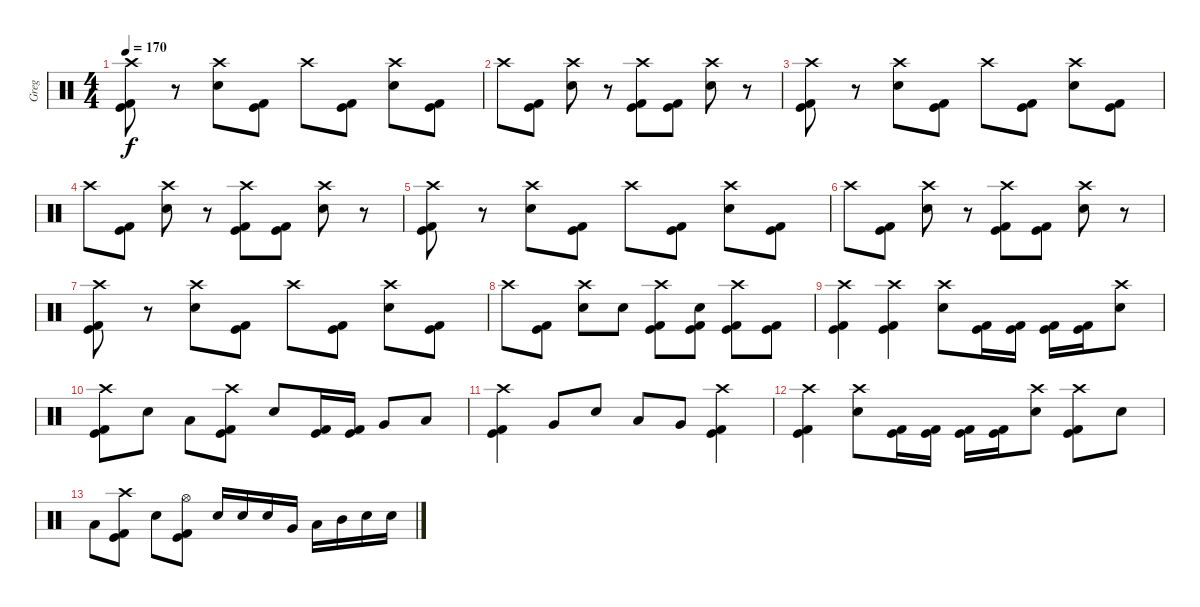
\track ("Greg" "Greg") {instrument percussion}
\staff {score}
\articulation defaults
\ts (4 4)
\tempo 170
\clef neutral
\ks c
("Crash high (hit)" "Kick (hit)" "Kick (hit) 2").8{dy f} r.8 ("Crash high (hit)" "Snare (hit) 2").8 ("Kick (hit)" "Kick (hit) 2").8 "Crash high (hit)".8 ("Kick (hit)" "Kick (hit) 2").8 ("Crash high (hit)" "Snare (hit) 2").8 ("Kick (hit)" "Kick (hit) 2").8 |
"Crash high (hit)".8 ("Kick (hit)" "Kick (hit) 2").8 ("Crash high (hit)" "Snare (hit) 2").8 r.8 ("Crash high (hit)" "Kick (hit)" "Kick (hit) 2").8 ("Kick (hit)" "Kick (hit) 2").8 ("Crash high (hit)" "Snare (hit) 2").8 r.8 |
("Crash high (hit)" "Kick (hit)" "Kick (hit) 2").8 r.8 ("Crash high (hit)" "Snare (hit) 2").8 ("Kick (hit)" "Kick (hit) 2").8 "Crash high (hit)".8 ("Kick (hit)" "Kick (hit) 2").8 ("Crash high (hit)" "Snare (hit) 2").8 ("Kick (hit)" "Kick (hit) 2").8 |
"Crash high (hit)".8 ("Kick (hit)" "Kick (hit) 2").8 ("Crash high (hit)" "Snare (hit) 2").8 r.8 ("Crash high (hit)" "Kick (hit)" "Kick (hit) 2").8 ("Kick (hit)" "Kick (hit) 2").8 ("Crash high (hit)" "Snare (hit) 2").8 r.8 |
("Crash high (hit)" "Kick (hit)" "Kick (hit) 2").8 r.8 ("Crash high (hit)" "Snare (hit) 2").8 ("Kick (hit)" "Kick (hit) 2").8 "Crash high (hit)".8 ("Kick (hit)" "Kick (hit) 2").8 ("Crash high (hit)" "Snare (hit) 2").8 ("Kick (hit)" "Kick (hit) 2").8 |
"Crash high (hit)".8 ("Kick (hit)" "Kick (hit) 2").8 ("Crash high (hit)" "Snare (hit) 2").8 r.8 ("Crash high (hit)" "Kick (hit)" "Kick (hit) 2").8 ("Kick (hit)" "Kick (hit) 2").8 ("Crash high (hit)" "Snare (hit) 2").8 r.8 |
("Crash high (hit)" "Kick (hit)" "Kick (hit) 2").8 r.8 ("Crash high (hit)" "Snare (hit) 2").8 ("Kick (hit)" "Kick (hit) 2").8 "Crash high (hit)".8 ("Kick (hit)" "Kick (hit) 2").8 ("Crash high (hit)" "Snare (hit) 2").8 ("Kick (hit)" "Kick (hit) 2").8 |
"Crash high (hit)".8 ("Kick (hit)" "Kick (hit) 2").8 ("Crash high (hit)" "Snare (hit) 2").8 "Snare (hit) 2".8 ("Crash high (hit)" "Kick (hit)" "Kick (hit) 2").8 ("Snare (hit) 2" "Kick (hit)" "Kick (hit) 2").8 ("Crash high (hit)" "Kick (hit)" "Kick (hit) 2").8 ("Kick (hit)" "Kick (hit) 2").8 |
("Crash high (hit)" "Kick (hit)" "Kick (hit) 2").4 ("Crash high (hit)" "Kick (hit)" "Kick (hit) 2").4 ("Crash high (hit)" "Snare (hit) 2").8 ("Kick (hit)" "Kick (hit) 2").16 ("Kick (hit)" "Kick (hit) 2").16 ("Kick (hit)" "Kick (hit) 2").16 ("Kick (hit)" "Kick (hit) 2").16 ("Crash high (hit)" "Snare (hit) 2").8 |
("Crash high (hit)" "Kick (hit)" "Kick (hit) 2").8 "Snare (hit) 2".8 "Low Tom (hit)".8 ("Crash high (hit)" "Kick (hit)" "Kick (hit) 2").8 "Snare (hit) 2".8 ("Kick (hit)" "Kick (hit) 2").16 ("Kick (hit)" "Kick (hit) 2").16 "Very Low Tom (hit)".8 "Low Tom (hit)".8 |
("Crash high (hit)" "Kick (hit)" "Kick (hit) 2").4 "Very Low Tom (hit)".8 "Snare (hit) 2".8 "Low Tom (hit)".8 "Very Low Tom (hit)".8 ("Crash high (hit)" "Kick (hit)" "Kick (hit) 2").4 |
("Crash high (hit)" "Kick (hit)" "Kick (hit) 2").4 ("Crash high (hit)" "Snare (hit) 2").8 ("Kick (hit)" "Kick (hit) 2").16 ("Kick (hit)" "Kick (hit) 2").16 ("Kick (hit)" "Kick (hit) 2").16 ("Kick (hit)" "Kick (hit) 2").16 ("Crash high (hit)" "Snare (hit) 2").8 ("Crash high (hit)" "Kick (hit)" "Kick (hit) 2").8 "Snare (hit) 2".8 |
"Low Tom (hit)".8 ("Crash high (hit)" "Kick (hit)" "Kick (hit) 2").8 "Snare (hit) 2".8 ("Hi-Hat (open)" "Kick (hit)" "Kick (hit) 2").8 "Snare (hit) 2".16 "Snare (hit) 2".16 "Snare (hit) 2".16 "Very Low Tom (hit)".16 "Low Tom (hit)".16 "Mid Tom (hit)".16 "Snare (hit) 2".16 "Snare (hit) 2".16
